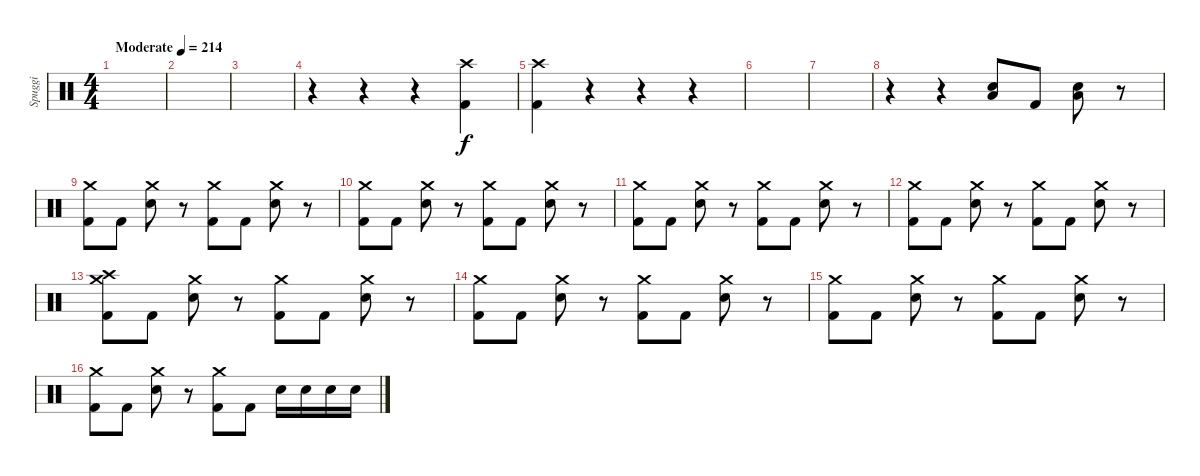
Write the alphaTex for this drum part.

\track ("Spuggi" "Spuggi") {instrument percussion}
\staff {score}
\articulation defaults
\ts (4 4)
\tempo (214 "Moderate")
\clef neutral
\ks c
|
|
|
r.4 r.4 r.4 ("Crash high (hit)" "Kick (hit) 2").4 |
("Kick (hit) 2" "Crash high (hit)").4 r.4 r.4 r.4 |
|
|
r.4 r.4 ("Snare (hit) 2" "Low Tom (hit)").8 "Kick (hit) 2".8 ("Snare (hit) 2" "Low Tom (hit)").8 r.8 |
("Crash medium (hit)" "Kick (hit) 2").8 "Kick (hit) 2".8 ("Crash medium (hit)" "Snare (hit) 2").8 r.8 ("Crash medium (hit)" "Kick (hit) 2").8 "Kick (hit) 2".8 ("Crash medium (hit)" "Snare (hit) 2").8 r.8 |
("Crash medium (hit)" "Kick (hit) 2").8 "Kick (hit) 2".8 ("Crash medium (hit)" "Snare (hit) 2").8 r.8 ("Crash medium (hit)" "Kick (hit) 2").8 "Kick (hit) 2".8 ("Crash medium (hit)" "Snare (hit) 2").8 r.8 |
("Crash medium (hit)" "Kick (hit) 2").8 "Kick (hit) 2".8 ("Crash medium (hit)" "Snare (hit) 2").8 r.8 ("Crash medium (hit)" "Kick (hit) 2").8 "Kick (hit) 2".8 ("Crash medium (hit)" "Snare (hit) 2").8 r.8 |
("Crash medium (hit)" "Kick (hit) 2").8 "Kick (hit) 2".8 ("Crash medium (hit)" "Snare (hit) 2").8 r.8 ("Crash medium (hit)" "Kick (hit) 2").8 "Kick (hit) 2".8 ("Crash medium (hit)" "Snare (hit) 2").8 r.8 |
("Crash medium (hit)" "Crash high (hit)" "Kick (hit) 2").8 "Kick (hit) 2".8 ("Crash medium (hit)" "Snare (hit) 2").8 r.8 ("Crash medium (hit)" "Kick (hit) 2").8 "Kick (hit) 2".8 ("Crash medium (hit)" "Snare (hit) 2").8 r.8 |
("Crash medium (hit)" "Kick (hit) 2").8 "Kick (hit) 2".8 ("Crash medium (hit)" "Snare (hit) 2").8 r.8 ("Crash medium (hit)" "Kick (hit) 2").8 "Kick (hit) 2".8 ("Crash medium (hit)" "Snare (hit) 2").8 r.8 |
("Crash medium (hit)" "Kick (hit) 2").8 "Kick (hit) 2".8 ("Crash medium (hit)" "Snare (hit) 2").8 r.8 ("Crash medium (hit)" "Kick (hit) 2").8 "Kick (hit) 2".8 ("Crash medium (hit)" "Snare (hit) 2").8 r.8 |
("Crash medium (hit)" "Kick (hit) 2").8 "Kick (hit) 2".8 ("Crash medium (hit)" "Snare (hit) 2").8 r.8 ("Crash medium (hit)" "Kick (hit) 2").8 "Kick (hit) 2".8 "Snare (hit) 2".16 "Snare (hit) 2".16 "Snare (hit) 2".16 "Snare (hit) 2".16
